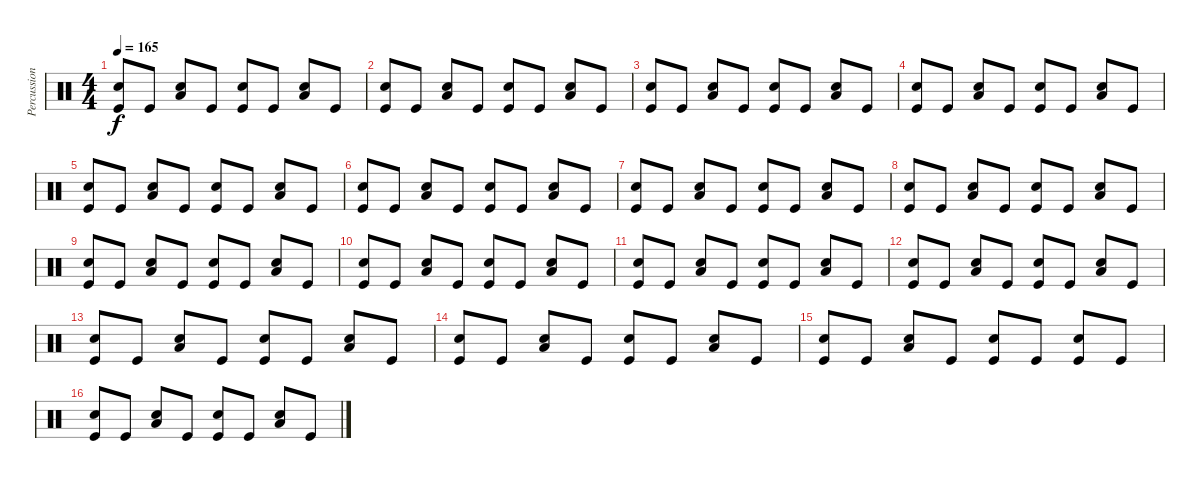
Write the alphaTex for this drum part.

\track ("Percussions" "Percussion") {instrument percussion}
\staff {score}
\articulation defaults
\ts (4 4)
\tempo 165
\clef neutral
\ks c
("Snare (hit) 2" "Kick (hit)").8{dy f} "Kick (hit)".8 ("Snare (hit) 2" "Low Floor Tom (hit)").8 "Kick (hit)".8 ("Snare (hit) 2" "Kick (hit)").8 "Kick (hit)".8 ("Snare (hit) 2" "Low Floor Tom (hit)").8 "Kick (hit)".8 |
("Snare (hit) 2" "Kick (hit)").8 "Kick (hit)".8 ("Snare (hit) 2" "Low Floor Tom (hit)").8 "Kick (hit)".8 ("Snare (hit) 2" "Kick (hit)").8 "Kick (hit)".8 ("Snare (hit) 2" "Low Floor Tom (hit)").8 "Kick (hit)".8 |
("Snare (hit) 2" "Kick (hit)").8 "Kick (hit)".8 ("Snare (hit) 2" "Low Floor Tom (hit)").8 "Kick (hit)".8 ("Snare (hit) 2" "Kick (hit)").8 "Kick (hit)".8 ("Snare (hit) 2" "Low Floor Tom (hit)").8 "Kick (hit)".8 |
("Snare (hit) 2" "Kick (hit)").8 "Kick (hit)".8 ("Snare (hit) 2" "Low Floor Tom (hit)").8 "Kick (hit)".8 ("Snare (hit) 2" "Kick (hit)").8 "Kick (hit)".8 ("Snare (hit) 2" "Low Floor Tom (hit)").8 "Kick (hit)".8 |
("Snare (hit) 2" "Kick (hit)").8 "Kick (hit)".8 ("Snare (hit) 2" "Low Floor Tom (hit)").8 "Kick (hit)".8 ("Snare (hit) 2" "Kick (hit)").8 "Kick (hit)".8 ("Snare (hit) 2" "Low Floor Tom (hit)").8 "Kick (hit)".8 |
("Snare (hit) 2" "Kick (hit)").8 "Kick (hit)".8 ("Snare (hit) 2" "Low Floor Tom (hit)").8 "Kick (hit)".8 ("Snare (hit) 2" "Kick (hit)").8 "Kick (hit)".8 ("Snare (hit) 2" "Low Floor Tom (hit)").8 "Kick (hit)".8 |
("Snare (hit) 2" "Kick (hit)").8 "Kick (hit)".8 ("Snare (hit) 2" "Low Floor Tom (hit)").8 "Kick (hit)".8 ("Snare (hit) 2" "Kick (hit)").8 "Kick (hit)".8 ("Snare (hit) 2" "Low Floor Tom (hit)").8 "Kick (hit)".8 |
("Snare (hit) 2" "Kick (hit)").8 "Kick (hit)".8 ("Snare (hit) 2" "Low Floor Tom (hit)").8 "Kick (hit)".8 ("Snare (hit) 2" "Kick (hit)").8 "Kick (hit)".8 ("Snare (hit) 2" "Low Floor Tom (hit)").8 "Kick (hit)".8 |
("Snare (hit) 2" "Kick (hit)").8 "Kick (hit)".8 ("Snare (hit) 2" "Low Floor Tom (hit)").8 "Kick (hit)".8 ("Snare (hit) 2" "Kick (hit)").8 "Kick (hit)".8 ("Snare (hit) 2" "Low Floor Tom (hit)").8 "Kick (hit)".8 |
("Snare (hit) 2" "Kick (hit)").8 "Kick (hit)".8 ("Snare (hit) 2" "Low Floor Tom (hit)").8 "Kick (hit)".8 ("Snare (hit) 2" "Kick (hit)").8 "Kick (hit)".8 ("Snare (hit) 2" "Low Floor Tom (hit)").8 "Kick (hit)".8 |
("Snare (hit) 2" "Kick (hit)").8 "Kick (hit)".8 ("Snare (hit) 2" "Low Floor Tom (hit)").8 "Kick (hit)".8 ("Snare (hit) 2" "Kick (hit)").8 "Kick (hit)".8 ("Snare (hit) 2" "Low Floor Tom (hit)").8 "Kick (hit)".8 |
("Snare (hit) 2" "Kick (hit)").8 "Kick (hit)".8 ("Snare (hit) 2" "Low Floor Tom (hit)").8 "Kick (hit)".8 ("Snare (hit) 2" "Kick (hit)").8 "Kick (hit)".8 ("Snare (hit) 2" "Low Floor Tom (hit)").8 "Kick (hit)".8 |
("Snare (hit) 2" "Kick (hit)").8 "Kick (hit)".8 ("Snare (hit) 2" "Low Floor Tom (hit)").8 "Kick (hit)".8 ("Snare (hit) 2" "Kick (hit)").8 "Kick (hit)".8 ("Snare (hit) 2" "Low Floor Tom (hit)").8 "Kick (hit)".8 |
("Snare (hit) 2" "Kick (hit)").8 "Kick (hit)".8 ("Snare (hit) 2" "Low Floor Tom (hit)").8 "Kick (hit)".8 ("Snare (hit) 2" "Kick (hit)").8 "Kick (hit)".8 ("Snare (hit) 2" "Low Floor Tom (hit)").8 "Kick (hit)".8 |
("Snare (hit) 2" "Kick (hit)").8 "Kick (hit)".8 ("Snare (hit) 2" "Low Floor Tom (hit)").8 "Kick (hit)".8 ("Snare (hit) 2" "Kick (hit)").8 "Kick (hit)".8 ("Snare (hit) 2" "Kick (hit)").8 "Kick (hit)".8 |
("Snare (hit) 2" "Kick (hit)").8 "Kick (hit)".8 ("Snare (hit) 2" "Low Floor Tom (hit)").8 "Kick (hit)".8 ("Snare (hit) 2" "Kick (hit)").8 "Kick (hit)".8 ("Snare (hit) 2" "Low Floor Tom (hit)").8 "Kick (hit)".8
